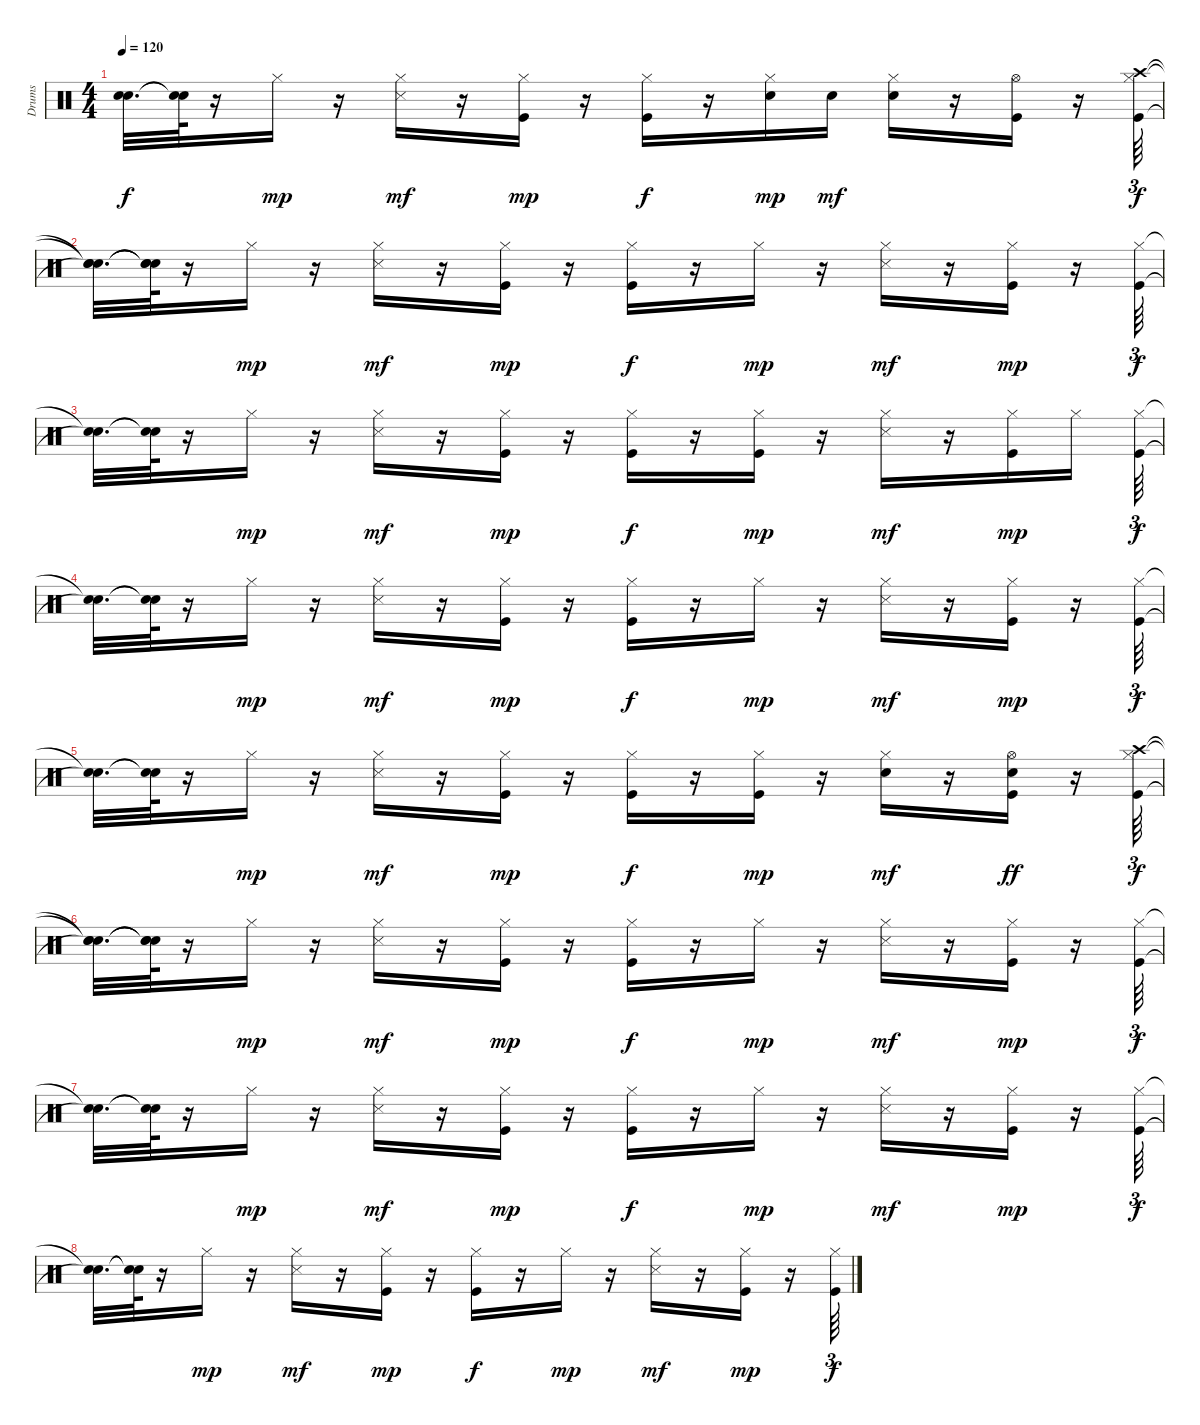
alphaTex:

\track ("Drums" "Drums") {instrument percussion}
\staff {score}
\articulation defaults
\ts (4 4)
\tempo 120
\clef neutral
\ks c
("Snare (hit)"{t} "Snare (hit)"{t}).32{d dy f} ("Snare (hit)"{t} "Snare (hit)"{t}).64 r.16 "Hi-Hat (closed)".16{dy mp} r.16 ("Hi-Hat (closed)" "Snare (side stick) 3").16{dy mf} r.16 ("Kick (hit)" "Hi-Hat (closed)").16{dy mp} r.16 ("Kick (hit)" "Hi-Hat (closed)").16{dy f} r.16 ("Snare (hit) 2" "Hi-Hat (closed)").16{dy mp} "Snare (hit) 2".16{dy mf} ("Snare (hit) 2" "Hi-Hat (closed)").16 r.16 ("Kick (hit)" "Hi-Hat (open)").16 r.16 ("Kick (hit)" "Hi-Hat (closed)" "Crash high (hit)").64{tu (3 2) dy f} |
("Snare (hit)"{t} "Snare (hit)"{t} "Snare (hit)"{t}).32{d} ("Snare (hit)"{t} "Snare (hit)"{t} "Snare (hit)"{t}).64 r.16 "Hi-Hat (closed)".16{dy mp} r.16 ("Hi-Hat (closed)" "Snare (side stick) 3").16{dy mf} r.16 ("Kick (hit)" "Hi-Hat (closed)").16{dy mp} r.16 ("Kick (hit)" "Hi-Hat (closed)").16{dy f} r.16 "Hi-Hat (closed)".16{dy mp} r.16 ("Hi-Hat (closed)" "Snare (side stick) 3").16{dy mf} r.16 ("Kick (hit)" "Hi-Hat (closed)").16{dy mp} r.16 ("Kick (hit)" "Hi-Hat (closed)").64{tu (3 2) dy f} |
("Snare (hit)"{t} "Snare (hit)"{t}).32{d} ("Snare (hit)"{t} "Snare (hit)"{t}).64 r.16 "Hi-Hat (closed)".16{dy mp} r.16 ("Hi-Hat (closed)" "Snare (side stick) 3").16{dy mf} r.16 ("Kick (hit)" "Hi-Hat (closed)").16{dy mp} r.16 ("Kick (hit)" "Hi-Hat (closed)").16{dy f} r.16 ("Kick (hit)" "Hi-Hat (closed)").16{dy mp} r.16 ("Hi-Hat (closed)" "Snare (side stick) 3").16{dy mf} r.16 ("Kick (hit)" "Hi-Hat (closed)").16{dy mp} "Hi-Hat (closed)".16 ("Kick (hit)" "Hi-Hat (closed)").64{tu (3 2) dy f} |
("Snare (hit)"{t} "Snare (hit)"{t}).32{d} ("Snare (hit)"{t} "Snare (hit)"{t}).64 r.16 "Hi-Hat (closed)".16{dy mp} r.16 ("Hi-Hat (closed)" "Snare (side stick) 3").16{dy mf} r.16 ("Kick (hit)" "Hi-Hat (closed)").16{dy mp} r.16 ("Kick (hit)" "Hi-Hat (closed)").16{dy f} r.16 "Hi-Hat (closed)".16{dy mp} r.16 ("Hi-Hat (closed)" "Snare (side stick) 3").16{dy mf} r.16 ("Kick (hit)" "Hi-Hat (closed)").16{dy mp} r.16 ("Kick (hit)" "Hi-Hat (closed)").64{tu (3 2) dy f} |
("Snare (hit)"{t} "Snare (hit)"{t}).32{d} ("Snare (hit)"{t} "Snare (hit)"{t}).64 r.16 "Hi-Hat (closed)".16{dy mp} r.16 ("Hi-Hat (closed)" "Snare (side stick) 3").16{dy mf} r.16 ("Kick (hit)" "Hi-Hat (closed)").16{dy mp} r.16 ("Kick (hit)" "Hi-Hat (closed)").16{dy f} r.16 ("Kick (hit)" "Hi-Hat (closed)").16{dy mp} r.16 ("Snare (hit) 2" "Hi-Hat (closed)").16{dy mf} r.16 ("Kick (hit)" "Snare (hit) 2" "Hi-Hat (open)").16{dy ff} r.16 ("Kick (hit)" "Hi-Hat (closed)" "Crash high (hit)").64{tu (3 2) dy f} |
("Snare (hit)"{t} "Snare (hit)"{t} "Snare (hit)"{t}).32{d} ("Snare (hit)"{t} "Snare (hit)"{t} "Snare (hit)"{t}).64 r.16 "Hi-Hat (closed)".16{dy mp} r.16 ("Hi-Hat (closed)" "Snare (side stick) 3").16{dy mf} r.16 ("Kick (hit)" "Hi-Hat (closed)").16{dy mp} r.16 ("Kick (hit)" "Hi-Hat (closed)").16{dy f} r.16 "Hi-Hat (closed)".16{dy mp} r.16 ("Hi-Hat (closed)" "Snare (side stick) 3").16{dy mf} r.16 ("Kick (hit)" "Hi-Hat (closed)").16{dy mp} r.16 ("Kick (hit)" "Hi-Hat (closed)").64{tu (3 2) dy f} |
("Snare (hit)"{t} "Snare (hit)"{t}).32{d} ("Snare (hit)"{t} "Snare (hit)"{t}).64 r.16 "Hi-Hat (closed)".16{dy mp} r.16 ("Hi-Hat (closed)" "Snare (side stick) 3").16{dy mf} r.16 ("Kick (hit)" "Hi-Hat (closed)").16{dy mp} r.16 ("Kick (hit)" "Hi-Hat (closed)").16{dy f} r.16 "Hi-Hat (closed)".16{dy mp} r.16 ("Hi-Hat (closed)" "Snare (side stick) 3").16{dy mf} r.16 ("Kick (hit)" "Hi-Hat (closed)").16{dy mp} r.16 ("Kick (hit)" "Hi-Hat (closed)").64{tu (3 2) dy f} |
("Snare (hit)"{t} "Snare (hit)"{t}).32{d} ("Snare (hit)"{t} "Snare (hit)"{t}).64 r.16 "Hi-Hat (closed)".16{dy mp} r.16 ("Hi-Hat (closed)" "Snare (side stick) 3").16{dy mf} r.16 ("Kick (hit)" "Hi-Hat (closed)").16{dy mp} r.16 ("Kick (hit)" "Hi-Hat (closed)").16{dy f} r.16 "Hi-Hat (closed)".16{dy mp} r.16 ("Hi-Hat (closed)" "Snare (side stick) 3").16{dy mf} r.16 ("Kick (hit)" "Hi-Hat (closed)").16{dy mp} r.16 ("Kick (hit)" "Hi-Hat (closed)").64{tu (3 2) dy f}
